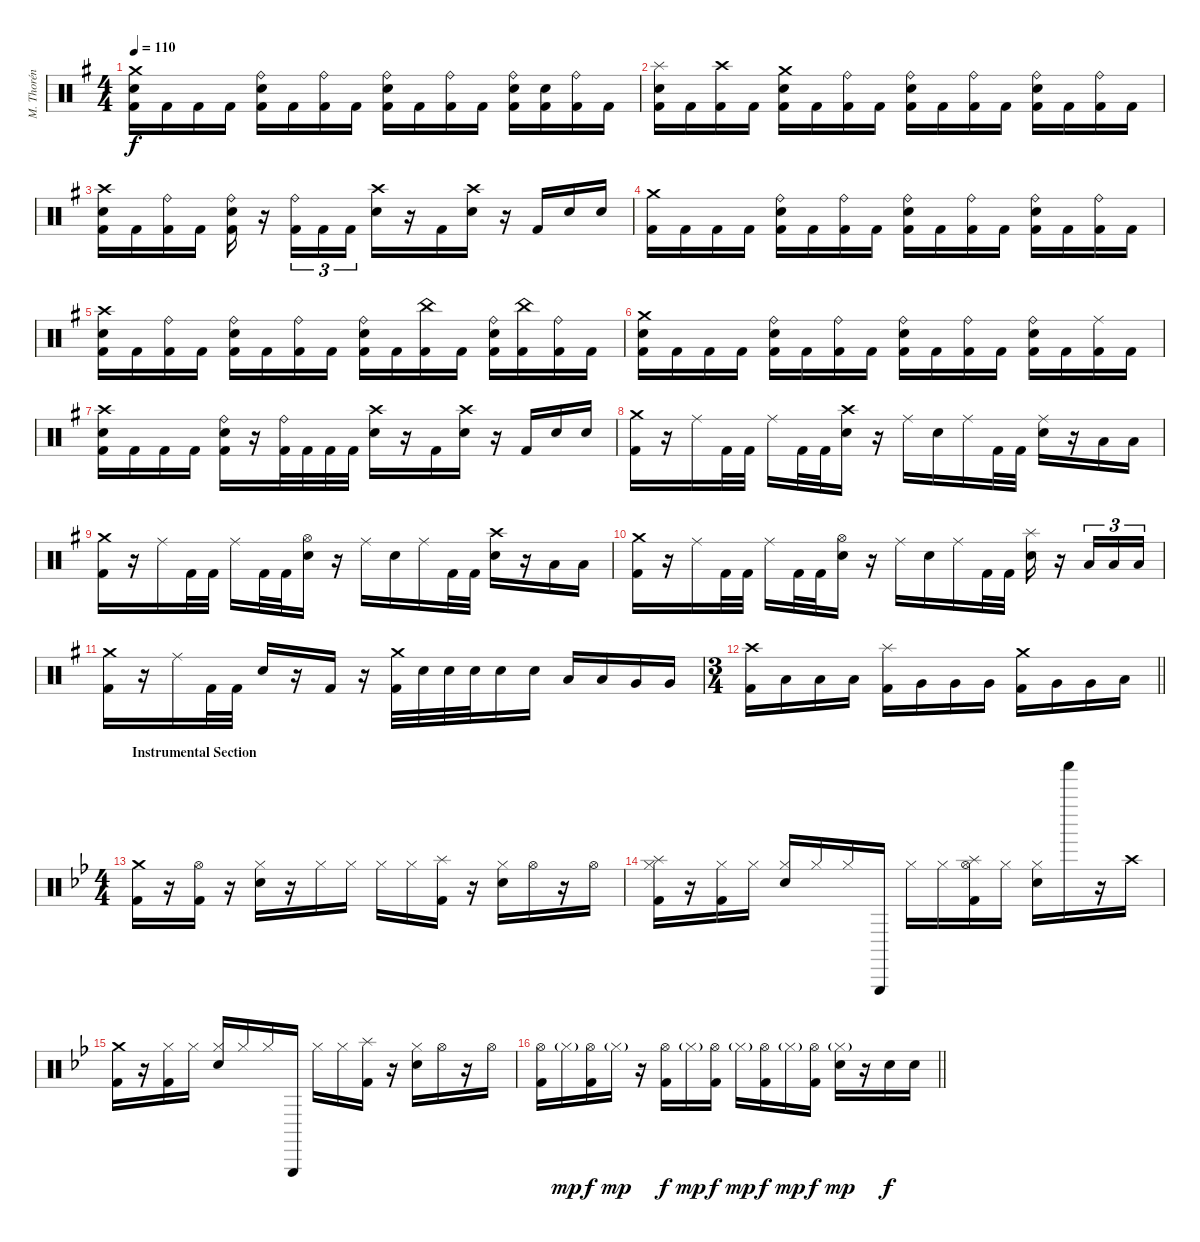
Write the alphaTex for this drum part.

\track ("M. Thorén (Drums)" "M. Thorén ") {instrument percussion}
\staff {score}
\articulation defaults
\ts (4 4)
\tempo 110
\clef neutral
\ks eminor
("Crash medium (hit)" "Electric Snare (hit)" "Kick (hit) 2").16{dy f} "Kick (hit) 2".16 "Kick (hit) 2".16 "Kick (hit) 2".16 ("Ride (bell)" "Electric Snare (hit)" "Kick (hit) 2").16 "Kick (hit) 2".16 ("Ride (bell)" "Kick (hit) 2").16 "Kick (hit) 2".16 ("Ride (bell)" "Electric Snare (hit)" "Kick (hit) 2").16 "Kick (hit) 2".16 ("Ride (bell)" "Kick (hit) 2").16 "Kick (hit) 2".16 ("Ride (bell)" "Electric Snare (hit)" "Kick (hit) 2").16 ("Electric Snare (hit)" "Kick (hit) 2").16 ("Ride (bell)" "Kick (hit) 2").16 "Kick (hit) 2".16 |
("Splash (hit)" "Electric Snare (hit)" "Kick (hit) 2").16 "Kick (hit) 2".16 ("Crash high (hit)" "Kick (hit) 2").16 "Kick (hit) 2".16 ("Crash medium (hit)" "Electric Snare (hit)" "Kick (hit) 2").16 "Kick (hit) 2".16 ("Ride (bell)" "Kick (hit) 2").16 "Kick (hit) 2".16 ("Ride (bell)" "Electric Snare (hit)" "Kick (hit) 2").16 "Kick (hit) 2".16 ("Ride (bell)" "Kick (hit) 2").16 "Kick (hit) 2".16 ("Ride (bell)" "Electric Snare (hit)" "Kick (hit) 2").16 "Kick (hit) 2".16 ("Ride (bell)" "Kick (hit) 2").16 "Kick (hit) 2".16 |
("Crash high (hit)" "Electric Snare (hit)" "Kick (hit) 2").16 "Kick (hit) 2".16 ("Ride (bell)" "Kick (hit) 2").16 "Kick (hit) 2".16 ("Ride (bell)" "Electric Snare (hit)" "Kick (hit) 2").16 r.16 ("Ride (bell)" "Kick (hit) 2").16{tu (3 2)} "Kick (hit) 2".16{tu (3 2)} "Kick (hit) 2".16{tu (3 2)} ("Crash high (hit)" "Electric Snare (hit)").16 r.16 "Kick (hit) 2".16 ("Crash high (hit)" "Electric Snare (hit)").16 r.16 "Kick (hit) 2".16 "Electric Snare (hit)".16 "Electric Snare (hit)".16 |
("Crash medium (hit)" "Kick (hit) 2").16 "Kick (hit) 2".16 "Kick (hit) 2".16 "Kick (hit) 2".16 ("Ride (bell)" "Electric Snare (hit)" "Kick (hit) 2").16 "Kick (hit) 2".16 ("Ride (bell)" "Kick (hit) 2").16 "Kick (hit) 2".16 ("Ride (bell)" "Electric Snare (hit)" "Kick (hit) 2").16 "Kick (hit) 2".16 ("Ride (bell)" "Kick (hit) 2").16 "Kick (hit) 2".16 ("Ride (bell)" "Electric Snare (hit)" "Kick (hit) 2").16 "Kick (hit) 2".16 ("Ride (bell)" "Kick (hit) 2").16 "Kick (hit) 2".16 |
("Crash high (hit)" "Electric Snare (hit)" "Kick (hit) 2").16 "Kick (hit) 2".16 ("Ride (bell)" "Kick (hit) 2").16 "Kick (hit) 2".16 ("Ride (bell)" "Electric Snare (hit)" "Kick (hit) 2").16 "Kick (hit) 2".16 ("Ride (bell)" "Kick (hit) 2").16 "Kick (hit) 2".16 ("Ride (bell)" "Electric Snare (hit)" "Kick (hit) 2").16 "Kick (hit) 2".16 ("China (hit)" "Kick (hit) 2").16 "Kick (hit) 2".16 ("Ride (bell)" "Electric Snare (hit)" "Kick (hit) 2").16 ("China (hit)" "Kick (hit) 2").16 ("Ride (bell)" "Kick (hit) 2").16 "Kick (hit) 2".16 |
("Crash medium (hit)" "Electric Snare (hit)" "Kick (hit) 2").16 "Kick (hit) 2".16 "Kick (hit) 2".16 "Kick (hit) 2".16 ("Ride (bell)" "Electric Snare (hit)" "Kick (hit) 2").16 "Kick (hit) 2".16 ("Ride (bell)" "Kick (hit) 2").16 "Kick (hit) 2".16 ("Ride (bell)" "Electric Snare (hit)" "Kick (hit) 2").16 "Kick (hit) 2".16 ("Ride (bell)" "Kick (hit) 2").16 "Kick (hit) 2".16 ("Ride (bell)" "Electric Snare (hit)" "Kick (hit) 2").16 "Kick (hit) 2".16 ("Ride (middle)" "Kick (hit) 2").16 "Kick (hit) 2".16 |
("Crash high (hit)" "Electric Snare (hit)" "Kick (hit) 2").16 "Kick (hit) 2".16 "Kick (hit) 2".16 "Kick (hit) 2".16 ("Ride (bell)" "Electric Snare (hit)" "Kick (hit) 2").16 r.16 ("Ride (bell)" "Kick (hit) 2").32 "Kick (hit) 2".32 "Kick (hit) 2".32 "Kick (hit) 2".32 ("Crash high (hit)" "Electric Snare (hit)").16 r.16 "Kick (hit) 2".16 ("Crash high (hit)" "Electric Snare (hit)").16 r.16 "Kick (hit) 2".16 "Electric Snare (hit)".16 "Electric Snare (hit)".16 |
("Crash medium (hit)" "Kick (hit) 2").16 r.16 "Ride (middle)".16 "Kick (hit) 2".32 "Kick (hit) 2".32 "Ride (middle)".16 "Kick (hit) 2".32 "Kick (hit) 2".32 ("Crash high (hit)" "Electric Snare (hit)").16 r.16 "Ride (middle)".16 "Electric Snare (hit)".16 "Ride (middle)".16 "Kick (hit) 2".32 "Kick (hit) 2".32 ("Ride (middle)" "Electric Snare (hit)").16 r.16 "Low Tom (hit)".16 "Low Tom (hit)".16 |
("Crash medium (hit)" "Kick (hit) 2").16 r.16 "Ride (middle)".16 "Kick (hit) 2".32 "Kick (hit) 2".32 "Ride (middle)".16 "Kick (hit) 2".32 "Kick (hit) 2".32 ("Hi-Hat (open)" "Electric Snare (hit)").16 r.16 "Ride (middle)".16 "Electric Snare (hit)".16 "Ride (middle)".16 "Kick (hit) 2".32 "Kick (hit) 2".32 ("Crash high (hit)" "Electric Snare (hit)").16 r.16 "Low Tom (hit)".16 "Low Tom (hit)".16 |
("Crash medium (hit)" "Kick (hit) 2").16 r.16 "Ride (middle)".16 "Kick (hit) 2".32 "Kick (hit) 2".32 "Ride (middle)".16 "Kick (hit) 2".32 "Kick (hit) 2".32 ("Hi-Hat (open)" "Electric Snare (hit)").16 r.16 "Ride (middle)".16 "Electric Snare (hit)".16 "Ride (middle)".16 "Kick (hit) 2".32 "Kick (hit) 2".32 ("Splash (hit)" "Electric Snare (hit)").16 r.16 "Low Tom (hit)".16{tu (3 2)} "Low Tom (hit)".16{tu (3 2)} "Low Tom (hit)".16{tu (3 2)} |
("Crash medium (hit)" "Kick (hit) 2").16 r.16 "Ride (middle)".16 "Kick (hit) 2".32 "Kick (hit) 2".32 "Electric Snare (hit)".16 r.16 "Kick (hit) 2".16 r.16 ("Crash medium (hit)" "Kick (hit) 2").32 "Electric Snare (hit)".32 "Electric Snare (hit)".32 "Electric Snare (hit)".32 "Electric Snare (hit)".16 "Electric Snare (hit)".16 "Low Tom (hit)".16 "Low Tom (hit)".16 "Very Low Tom (hit)".16 "Very Low Tom (hit)".16 |
\ts (3 4)
\barLineRight lightlight
("Crash high (hit)" "Kick (hit) 2").16 "Low Tom (hit)".16 "Low Tom (hit)".16 "Low Tom (hit)".16 ("Splash (hit)" "Kick (hit) 2").16 "Very Low Tom (hit)".16 "Very Low Tom (hit)".16 "Very Low Tom (hit)".16 ("Crash medium (hit)" "Kick (hit) 2").16 "Very Low Tom (hit)".16 "Very Low Tom (hit)".16 "Low Floor Tom (hit)".16 |
\ts (4 4)
\section ("" "Instrumental Section")
\ks gminor
("Crash medium (hit)" "Kick (hit) 2").16 r.16 ("Hi-Hat (open)" "Kick (hit) 2").16 r.16 ("Hi-Hat (closed)" "Electric Snare (hit)").16 r.16 "Hi-Hat (closed)".16 "Hi-Hat (closed)".16 "Hi-Hat (closed)".16 "Hi-Hat (closed)".16 ("Splash (hit)" "Kick (hit) 2").16 r.16 ("Hi-Hat (closed)" "Electric Snare (hit)").16 "Hi-Hat (open)".16 r.16 "Hi-Hat (open)".16 |
("Splash (hit)" "Hi-Hat (closed)" "Kick (hit) 2").16 r.16 ("Hi-Hat (closed)" "Kick (hit) 2").16 "Hi-Hat (closed)".16 ("Hi-Hat (closed)" "Electric Snare (hit)").16 "Hi-Hat (closed)".16 "Hi-Hat (closed)".16 "Triangle (hit)".16 "Hi-Hat (closed)".16 "Hi-Hat (closed)".16 ("Splash (hit)" "Hi-Hat (open)" "Kick (hit) 2").16 "Hi-Hat (closed)".16 ("Hi-Hat (closed)" "Electric Snare (hit)").16 "Shaker (hit)".16 r.16 "Crash high (hit)".16 |
("Crash medium (hit)" "Kick (hit) 2").16 r.16 ("Hi-Hat (closed)" "Kick (hit) 2").16 "Hi-Hat (closed)".16 ("Hi-Hat (closed)" "Electric Snare (hit)").16 "Hi-Hat (closed)".16 "Hi-Hat (closed)".16 "Triangle (hit)".16 "Hi-Hat (closed)".16 "Hi-Hat (closed)".16 ("Splash (hit)" "Kick (hit) 2").16 r.16 ("Hi-Hat (closed)" "Electric Snare (hit)").16 "Hi-Hat (open)".16 r.16 "Hi-Hat (open)".16 |
\barLineRight lightlight
("Hi-Hat (open)" "Kick (hit) 2").16 "Hi-Hat (closed)"{g}.16{dy mp} ("Hi-Hat (open)" "Kick (hit) 2").16{dy f} "Hi-Hat (closed)"{g}.16{dy mp} r.16 ("Hi-Hat (open)" "Kick (hit) 2").16{dy f} "Hi-Hat (closed)"{g}.16{dy mp} ("Hi-Hat (open)" "Kick (hit) 2").16{dy f} "Hi-Hat (closed)"{g}.16{dy mp} ("Hi-Hat (open)" "Kick (hit) 2").16{dy f} "Hi-Hat (closed)"{g}.16{dy mp} ("Hi-Hat (open)" "Kick (hit) 2").16{dy f} ("Hi-Hat (closed)"{g} "Electric Snare (hit)").16{dy mp} r.16 "Electric Snare (hit)".16{dy f} "Electric Snare (hit)".16
